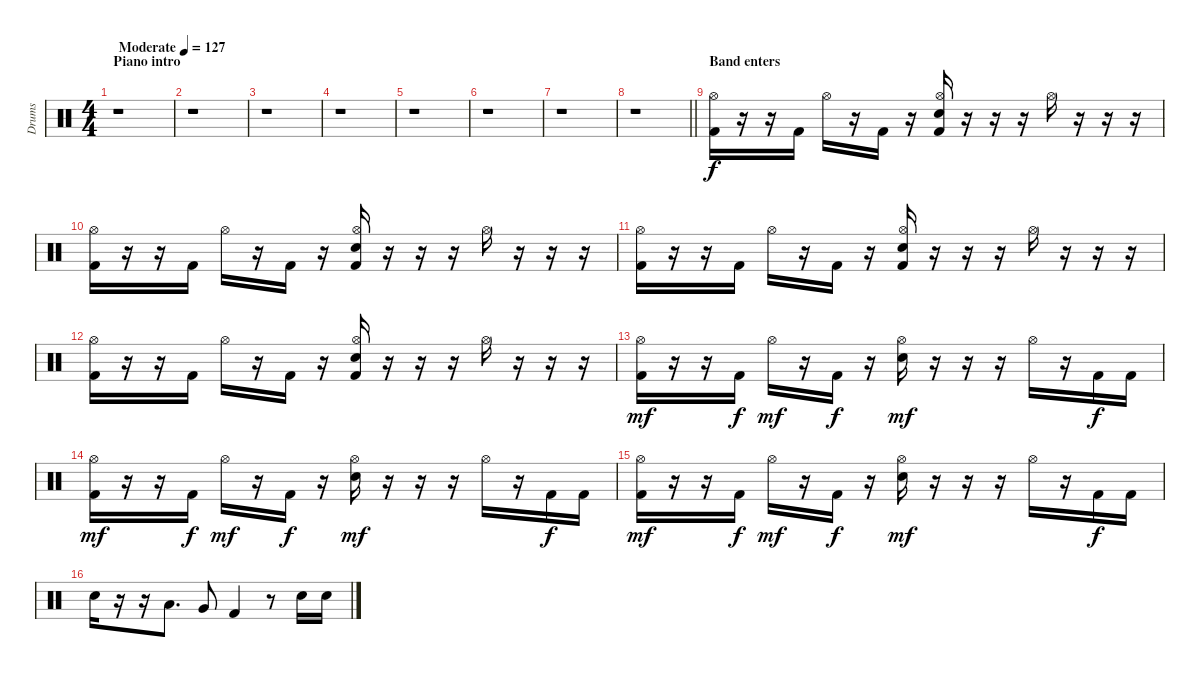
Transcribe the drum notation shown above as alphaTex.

\track ("Drums" "Drums") {instrument percussion}
\staff {score}
\articulation defaults
\ts (4 4)
\section ("" "Piano intro")
\tempo (127 "Moderate")
\clef neutral
\ks c
r.1{dy f} |
r.1 |
r.1 |
r.1 |
r.1 |
r.1 |
r.1 |
\barLineRight lightlight
r.1 |
\section ("" "Band enters")
("Kick (hit) 2" "Hi-Hat (open)").16 r.16 r.16 "Kick (hit) 2".16 "Hi-Hat (open)".16 r.16 "Kick (hit) 2".16 r.16 ("Kick (hit) 2" "Electric Snare (hit)" "Hi-Hat (open)").16 r.16 r.16 r.16 "Hi-Hat (open)".16 r.16 r.16 r.16 |
("Kick (hit) 2" "Hi-Hat (open)").16 r.16 r.16 "Kick (hit) 2".16 "Hi-Hat (open)".16 r.16 "Kick (hit) 2".16 r.16 ("Kick (hit) 2" "Electric Snare (hit)" "Hi-Hat (open)").16 r.16 r.16 r.16 "Hi-Hat (open)".16 r.16 r.16 r.16 |
("Kick (hit) 2" "Hi-Hat (open)").16 r.16 r.16 "Kick (hit) 2".16 "Hi-Hat (open)".16 r.16 "Kick (hit) 2".16 r.16 ("Kick (hit) 2" "Electric Snare (hit)" "Hi-Hat (open)").16 r.16 r.16 r.16 "Hi-Hat (open)".16 r.16 r.16 r.16 |
("Kick (hit) 2" "Hi-Hat (open)").16 r.16 r.16 "Kick (hit) 2".16 "Hi-Hat (open)".16 r.16 "Kick (hit) 2".16 r.16 ("Kick (hit) 2" "Electric Snare (hit)" "Hi-Hat (open)").16 r.16 r.16 r.16 "Hi-Hat (open)".16 r.16 r.16 r.16 |
("Kick (hit) 2" "Hi-Hat (open)").16{dy mf} r.16 r.16 "Kick (hit) 2".16{dy f} "Hi-Hat (open)".16{dy mf} r.16 "Kick (hit) 2".16{dy f} r.16 ("Electric Snare (hit)" "Hi-Hat (open)").16{dy mf} r.16 r.16 r.16 "Hi-Hat (open)".16 r.16 "Kick (hit) 2".16{dy f} "Kick (hit) 2".16 |
("Kick (hit) 2" "Hi-Hat (open)").16{dy mf} r.16 r.16 "Kick (hit) 2".16{dy f} "Hi-Hat (open)".16{dy mf} r.16 "Kick (hit) 2".16{dy f} r.16 ("Electric Snare (hit)" "Hi-Hat (open)").16{dy mf} r.16 r.16 r.16 "Hi-Hat (open)".16 r.16 "Kick (hit) 2".16{dy f} "Kick (hit) 2".16 |
("Kick (hit) 2" "Hi-Hat (open)").16{dy mf} r.16 r.16 "Kick (hit) 2".16{dy f} "Hi-Hat (open)".16{dy mf} r.16 "Kick (hit) 2".16{dy f} r.16 ("Electric Snare (hit)" "Hi-Hat (open)").16{dy mf} r.16 r.16 r.16 "Hi-Hat (open)".16 r.16 "Kick (hit) 2".16{dy f} "Kick (hit) 2".16 |
"Electric Snare (hit)".16 r.16 r.16 "Low Tom (hit)".8{d} "Very Low Tom (hit)".8 "Kick (hit) 2".4 r.8 "Electric Snare (hit)".16 "Electric Snare (hit)".16
